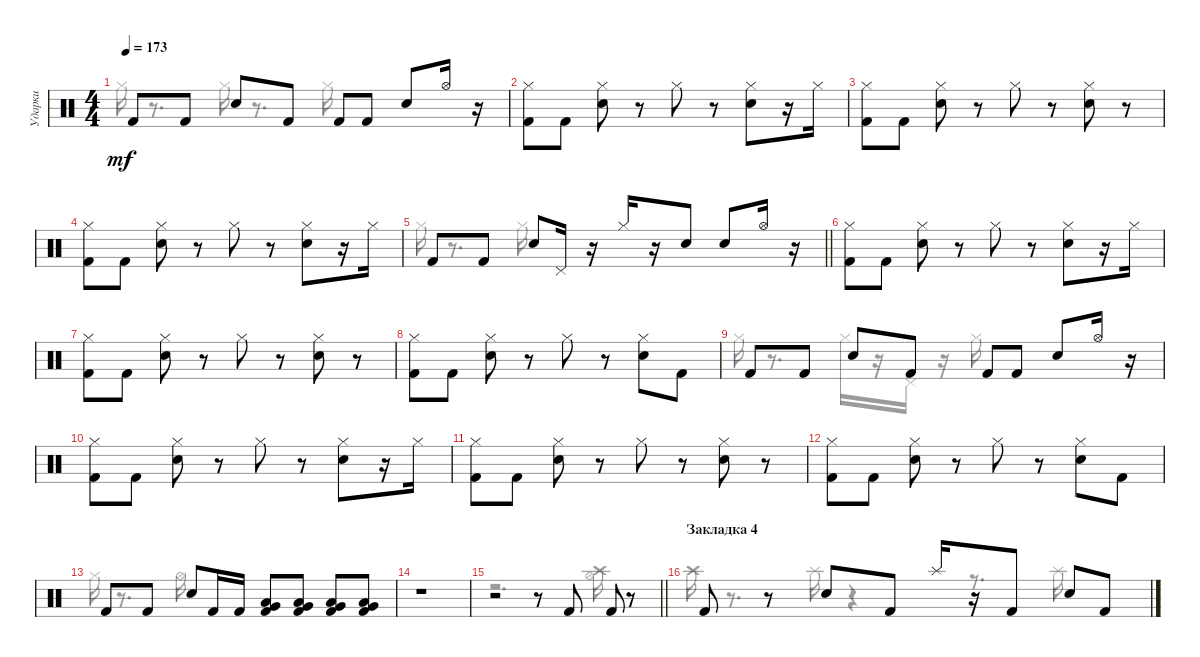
\track ("Ударки" "Ударки") {instrument percussion}
\staff {score}
\articulation defaults
\voice
\ts (4 4)
\tempo 173
\clef neutral
\ks c "Kick (hit) 2".8{dy mf} "Kick (hit) 2".8 "Snare (hit) 2".8 "Kick (hit) 2".8 "Kick (hit) 2".8 "Kick (hit) 2".8 "Snare (hit) 2".8 "Hi-Hat (open)".16
r.16 |
("Hi-Hat (closed)" "Kick (hit) 2").8 "Kick (hit) 2".8 ("Hi-Hat (closed)" "Snare (hit) 2").8 r.8 "Hi-Hat (closed)".8 r.8 ("Hi-Hat (closed)" "Snare (hit) 2").8 r.16 "Hi-Hat (closed)".16 |
("Hi-Hat (closed)" "Kick (hit) 2").8 "Kick (hit) 2".8 ("Hi-Hat (closed)" "Snare (hit) 2").8 r.8 "Hi-Hat (closed)".8 r.8 ("Hi-Hat (closed)" "Snare (hit) 2").8 r.8 |
("Kick (hit) 2" "Hi-Hat (closed)").8 "Kick (hit) 2".8 ("Hi-Hat (closed)" "Snare (hit) 2").8 r.8 "Hi-Hat (closed)".8 r.8 ("Hi-Hat (closed)" "Snare (hit) 2").8 r.16 "Hi-Hat (closed)".16 |
\barLineRight lightlight "Kick (hit) 2".8 "Kick (hit) 2".8 "Snare (hit) 2".8 "Pedal Hi-Hat (hit)".16
r.16 "Hi-Hat (closed)".16 r.16 "Snare (hit) 2".8 "Snare (hit) 2".8 "Hi-Hat (open)".16 r.16 |
("Hi-Hat (closed)" "Kick (hit) 2").8 "Kick (hit) 2".8 ("Hi-Hat (closed)" "Snare (hit) 2").8 r.8 "Hi-Hat (closed)".8 r.8 ("Hi-Hat (closed)" "Snare (hit) 2").8 r.16 "Hi-Hat (closed)".16 |
("Kick (hit) 2" "Hi-Hat (closed)").8 "Kick (hit) 2".8 ("Snare (hit) 2" "Hi-Hat (closed)").8 r.8 "Hi-Hat (closed)".8 r.8 ("Hi-Hat (closed)" "Snare (hit) 2").8 r.8 |
("Kick (hit) 2" "Hi-Hat (closed)").8 "Kick (hit) 2".8 ("Snare (hit) 2" "Hi-Hat (closed)").8 r.8 "Hi-Hat (closed)".8 r.8 ("Snare (hit) 2" "Hi-Hat (closed)").8 "Kick (hit) 2".8 |
"Kick (hit) 2".8 "Kick (hit) 2".8 "Snare (hit) 2".8 "Kick (hit) 2".8 "Kick (hit) 2".8 "Kick (hit) 2".8 "Snare (hit) 2".8 "Hi-Hat (open)".16 r.16 |
("Kick (hit) 2" "Hi-Hat (closed)").8 "Kick (hit) 2".8 ("Snare (hit) 2" "Hi-Hat (closed)").8 r.8 "Hi-Hat (closed)".8 r.8 ("Hi-Hat (closed)" "Snare (hit) 2").8 r.16 "Hi-Hat (closed)".16 |
("Kick (hit) 2" "Hi-Hat (closed)").8 "Kick (hit) 2".8 ("Snare (hit) 2" "Hi-Hat (closed)").8 r.8 "Hi-Hat (closed)".8 r.8 ("Snare (hit) 2" "Hi-Hat (closed)").8 r.8 |
("Hi-Hat (closed)" "Kick (hit) 2").8 "Kick (hit) 2".8 ("Snare (hit) 2" "Hi-Hat (closed)").8 r.8 "Hi-Hat (closed)".8 r.8 ("Snare (hit) 2" "Hi-Hat (closed)").8 "Kick (hit) 2".8 |
"Kick (hit) 2".8 "Kick (hit) 2".8 "Snare (hit) 2".8 "Kick (hit) 2".16 "Kick (hit) 2".16 ("Kick (hit) 2" "Low Floor Tom (hit)" "Very Low Tom (hit)").8 ("Low Floor Tom (hit)" "Very Low Tom (hit)" "Kick (hit) 2").8 ("Kick (hit) 2" "Low Floor Tom (hit)" "Very Low Tom (hit)").8 ("Low Floor Tom (hit)" "Very Low Tom (hit)" "Kick (hit) 2").8 |
r.1 |
\barLineRight lightlight
r.2 r.8 "Kick (hit) 2".8 "Kick (hit) 2".8 r.8 |
\section ("" "Закладка 4")
"Kick (hit) 2".8 r.8 "Snare (hit) 2".8 "Kick (hit) 2".8 "Splash (hit)".16 r.16 "Kick (hit) 2".8 "Snare (hit) 2".8 "Kick (hit) 2".8
\voice
\clef neutral
\ottava regular
\simile none
\ks c "Hi-Hat (closed)".16{dy mf}
r.8{d} "Hi-Hat (closed)".16 r.8{d} "Hi-Hat (closed)".16 |
|
|
|
\barLineRight lightlight "Hi-Hat (closed)".16
r.8{d} "Hi-Hat (closed)".16 |
|
|
|
"Hi-Hat (closed)".16 r.8{d} "Hi-Hat (closed)".16 r.16 "Pedal Hi-Hat (hit)".16 r.16 "Hi-Hat (closed)".16 |
|
|
|
"Hi-Hat (closed)".16 r.8{d} "Hi-Hat (open)".16 |
|
\barLineRight lightlight
r.2{d} ("Hi-Hat (open)" "Crash high (hit)").16 |
"Crash high (hit)".16 r.8{d} "Splash (hit)".16 r.4 r.8{d} "Splash (hit)".16
